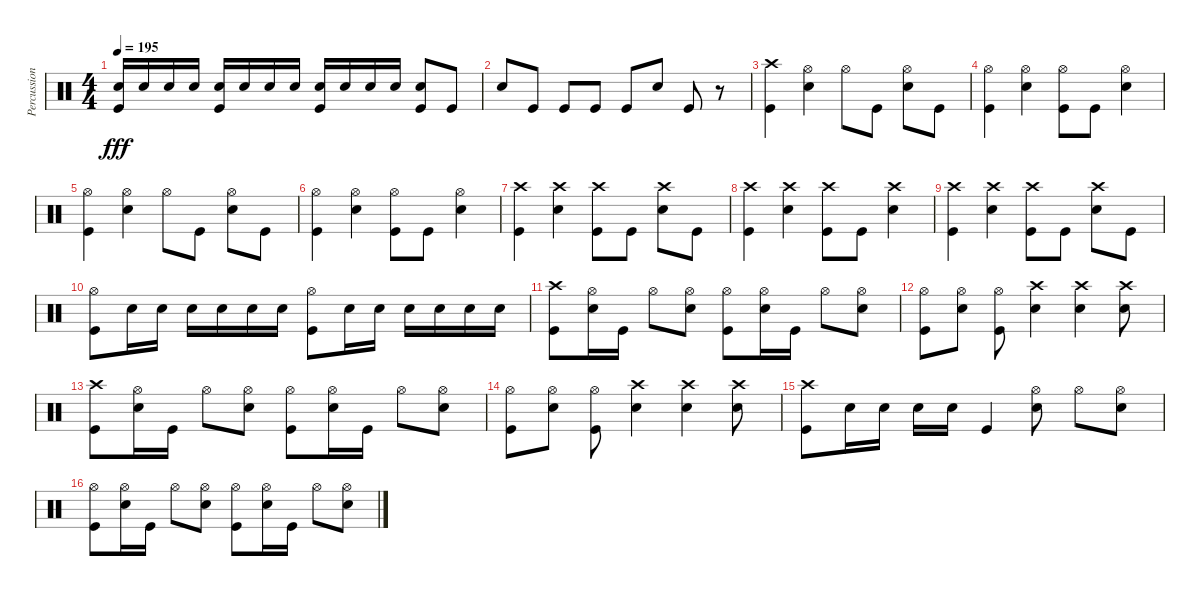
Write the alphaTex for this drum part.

\track ("Percussions" "Percussion") {instrument percussion}
\staff {score}
\articulation defaults
\ts (4 4)
\tempo 195
\clef neutral
\ks c
("Electric Snare (hit)" "Kick (hit)").16{dy fff} "Electric Snare (hit)".16 "Electric Snare (hit)".16 "Electric Snare (hit)".16 ("Electric Snare (hit)" "Kick (hit)").16 "Electric Snare (hit)".16 "Electric Snare (hit)".16 "Electric Snare (hit)".16 ("Electric Snare (hit)" "Kick (hit)").16 "Electric Snare (hit)".16 "Electric Snare (hit)".16 "Electric Snare (hit)".16 ("Electric Snare (hit)" "Kick (hit)").8 "Kick (hit)".8 |
"Electric Snare (hit)".8 "Kick (hit)".8 "Kick (hit)".8 "Kick (hit)".8 "Kick (hit)".8 "Electric Snare (hit)".8 "Kick (hit)".8 r.8 |
("Crash high (hit)" "Kick (hit)").4 ("Hi-Hat (open)" "Electric Snare (hit)").4 "Hi-Hat (open)".8 "Kick (hit)".8 ("Hi-Hat (open)" "Electric Snare (hit)").8 "Kick (hit)".8 |
("Hi-Hat (open)" "Kick (hit)").4 ("Hi-Hat (open)" "Electric Snare (hit)").4 ("Hi-Hat (open)" "Kick (hit)").8 "Kick (hit)".8 ("Hi-Hat (open)" "Electric Snare (hit)").4 |
("Hi-Hat (open)" "Kick (hit)").4 ("Hi-Hat (open)" "Electric Snare (hit)").4 "Hi-Hat (open)".8 "Kick (hit)".8 ("Hi-Hat (open)" "Electric Snare (hit)").8 "Kick (hit)".8 |
("Hi-Hat (open)" "Kick (hit)").4 ("Hi-Hat (open)" "Electric Snare (hit)").4 ("Hi-Hat (open)" "Kick (hit)").8 "Kick (hit)".8 ("Hi-Hat (open)" "Electric Snare (hit)").4 |
("Crash high (hit)" "Kick (hit)").4 ("Crash high (hit)" "Electric Snare (hit)").4 ("Crash high (hit)" "Kick (hit)").8 "Kick (hit)".8 ("Crash high (hit)" "Electric Snare (hit)").8 "Kick (hit)".8 |
("Crash high (hit)" "Kick (hit)").4 ("Crash high (hit)" "Electric Snare (hit)").4 ("Crash high (hit)" "Kick (hit)").8 "Kick (hit)".8 ("Crash high (hit)" "Electric Snare (hit)").4 |
("Crash high (hit)" "Kick (hit)").4 ("Crash high (hit)" "Electric Snare (hit)").4 ("Crash high (hit)" "Kick (hit)").8 "Kick (hit)".8 ("Crash high (hit)" "Electric Snare (hit)").8 "Kick (hit)".8 |
("Hi-Hat (open)" "Kick (hit)").8 "Electric Snare (hit)".16 "Electric Snare (hit)".16 "Electric Snare (hit)".16 "Electric Snare (hit)".16 "Electric Snare (hit)".16 "Electric Snare (hit)".16 ("Hi-Hat (open)" "Kick (hit)").8 "Electric Snare (hit)".16 "Electric Snare (hit)".16 "Electric Snare (hit)".16 "Electric Snare (hit)".16 "Electric Snare (hit)".16 "Electric Snare (hit)".16 |
("Crash high (hit)" "Kick (hit)").8 ("Hi-Hat (open)" "Electric Snare (hit)").16 "Kick (hit)".16 "Hi-Hat (open)".8 ("Hi-Hat (open)" "Electric Snare (hit)").8 ("Hi-Hat (open)" "Kick (hit)").8 ("Hi-Hat (open)" "Electric Snare (hit)").16 "Kick (hit)".16 "Hi-Hat (open)".8 ("Hi-Hat (open)" "Electric Snare (hit)").8 |
("Hi-Hat (open)" "Kick (hit)").8 ("Hi-Hat (open)" "Electric Snare (hit)").8 ("Hi-Hat (open)" "Kick (hit)").8 ("Crash high (hit)" "Electric Snare (hit)").4 ("Crash high (hit)" "Electric Snare (hit)").4 ("Crash high (hit)" "Electric Snare (hit)").8 |
("Crash high (hit)" "Kick (hit)").8 ("Hi-Hat (open)" "Electric Snare (hit)").16 "Kick (hit)".16 "Hi-Hat (open)".8 ("Hi-Hat (open)" "Electric Snare (hit)").8 ("Hi-Hat (open)" "Kick (hit)").8 ("Hi-Hat (open)" "Electric Snare (hit)").16 "Kick (hit)".16 "Hi-Hat (open)".8 ("Hi-Hat (open)" "Electric Snare (hit)").8 |
("Hi-Hat (open)" "Kick (hit)").8 ("Hi-Hat (open)" "Electric Snare (hit)").8 ("Hi-Hat (open)" "Kick (hit)").8 ("Crash high (hit)" "Electric Snare (hit)").4 ("Crash high (hit)" "Electric Snare (hit)").4 ("Crash high (hit)" "Electric Snare (hit)").8 |
("Crash high (hit)" "Kick (hit)").8 "Electric Snare (hit)".16 "Electric Snare (hit)".16 "Electric Snare (hit)".16 "Electric Snare (hit)".16 "Kick (hit)".4 ("Hi-Hat (open)" "Electric Snare (hit)").8 "Hi-Hat (open)".8 ("Hi-Hat (open)" "Electric Snare (hit)").8 |
("Hi-Hat (open)" "Kick (hit)").8 ("Hi-Hat (open)" "Electric Snare (hit)").16 "Kick (hit)".16 "Hi-Hat (open)".8 ("Hi-Hat (open)" "Electric Snare (hit)").8 ("Hi-Hat (open)" "Kick (hit)").8 ("Hi-Hat (open)" "Electric Snare (hit)").16 "Kick (hit)".16 "Hi-Hat (open)".8 ("Hi-Hat (open)" "Electric Snare (hit)").8
